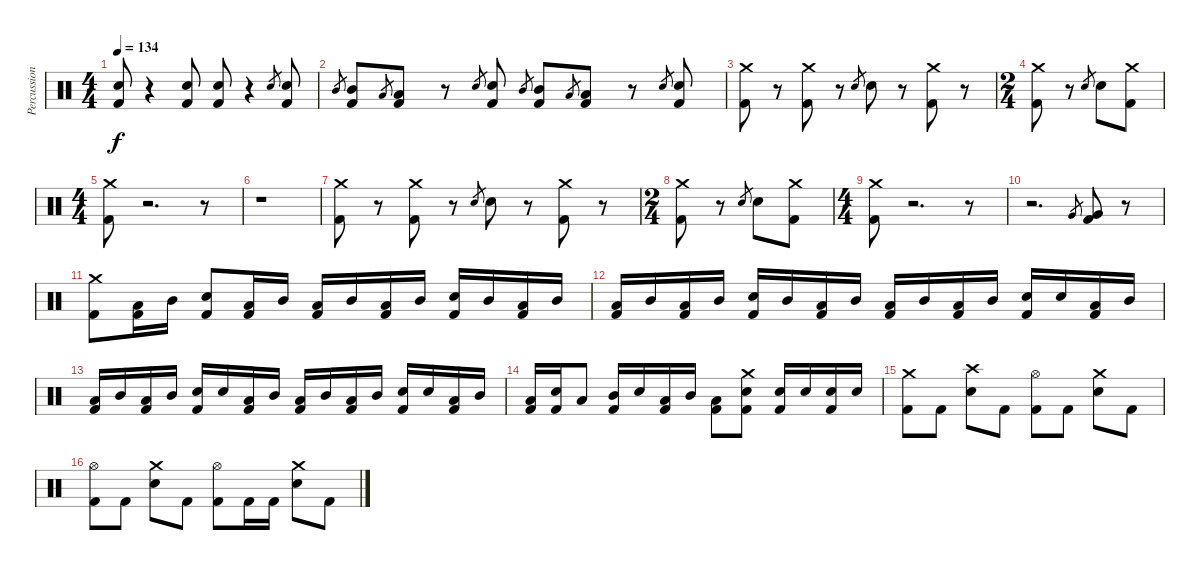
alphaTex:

\track ("Percussion" "Percussion") {instrument percussion}
\staff {score}
\articulation defaults
\ts (4 4)
\tempo 134
\clef neutral
\ks c
("Kick (hit) 2" "Electric Snare (hit)").8{dy f} r.4 ("Kick (hit) 2" "Electric Snare (hit)").8 ("Kick (hit) 2" "Electric Snare (hit)").8 r.4 "Electric Snare (hit)".8{gr} ("Kick (hit) 2" "Electric Snare (hit)").8 |
"Mid Tom (hit)".8{gr} ("Kick (hit) 2" "Mid Tom (hit)").8 "Low Tom (hit)".8{gr} ("Kick (hit) 2" "Low Tom (hit)").8 r.8 "Electric Snare (hit)".8{gr} ("Kick (hit) 2" "Electric Snare (hit)").8 "Mid Tom (hit)".8{gr} ("Kick (hit) 2" "Mid Tom (hit)").8 "Low Tom (hit)".8{gr} ("Kick (hit) 2" "Low Tom (hit)").8 r.8 "Electric Snare (hit)".8{gr} ("Kick (hit) 2" "Electric Snare (hit)").8 |
("Kick (hit) 2" "Crash medium (hit)").8 r.8 ("Kick (hit) 2" "Crash medium (hit)").8 r.8 "Electric Snare (hit)".8{gr} "Electric Snare (hit)".8 r.8 ("Kick (hit) 2" "Crash medium (hit)").8 r.8 |
\ts (2 4)
("Kick (hit) 2" "Crash medium (hit)").8 r.8 "Electric Snare (hit)".8{gr} "Electric Snare (hit)".8 ("Kick (hit) 2" "Crash medium (hit)").8 |
\ts (4 4)
("Kick (hit) 2" "Crash medium (hit)").8 r.2{d} r.8 |
r.1 |
("Kick (hit) 2" "Crash medium (hit)").8 r.8 ("Kick (hit) 2" "Crash medium (hit)").8 r.8 "Electric Snare (hit)".8{gr} "Electric Snare (hit)".8 r.8 ("Kick (hit) 2" "Crash medium (hit)").8 r.8 |
\ts (2 4)
("Kick (hit) 2" "Crash medium (hit)").8 r.8 "Electric Snare (hit)".8{gr} "Electric Snare (hit)".8 ("Kick (hit) 2" "Crash medium (hit)").8 |
\ts (4 4)
("Kick (hit) 2" "Crash medium (hit)").8 r.2{d} r.8 |
r.2{d} "Very Low Tom (hit)".8{gr} ("Kick (hit) 2" "Very Low Tom (hit)").8 r.8 |
("Kick (hit) 2" "Crash medium (hit)").8 ("Kick (hit) 2" "Low Tom (hit)").16 "Mid Tom (hit)".16 ("Kick (hit) 2" "Electric Snare (hit)").8 ("Kick (hit) 2" "Low Tom (hit)").16 "Mid Tom (hit)".16 ("Kick (hit) 2" "Low Tom (hit)").16 "Mid Tom (hit)".16 ("Kick (hit) 2" "Low Tom (hit)").16 "Mid Tom (hit)".16 ("Kick (hit) 2" "Electric Snare (hit)").16 "Mid Tom (hit)".16 ("Kick (hit) 2" "Low Tom (hit)").16 "Mid Tom (hit)".16 |
("Kick (hit) 2" "Low Tom (hit)").16 "Mid Tom (hit)".16 ("Kick (hit) 2" "Low Tom (hit)").16 "Mid Tom (hit)".16 ("Kick (hit) 2" "Electric Snare (hit)").16 "Mid Tom (hit)".16 ("Kick (hit) 2" "Low Tom (hit)").16 "Mid Tom (hit)".16 ("Kick (hit) 2" "Low Tom (hit)").16 "Mid Tom (hit)".16 ("Kick (hit) 2" "Low Tom (hit)").16 "Mid Tom (hit)".16 ("Kick (hit) 2" "Electric Snare (hit)").16 "Electric Snare (hit)".16 ("Kick (hit) 2" "Low Tom (hit)").16 "Mid Tom (hit)".16 |
("Kick (hit) 2" "Low Tom (hit)").16 "Mid Tom (hit)".16 ("Kick (hit) 2" "Low Tom (hit)").16 "Mid Tom (hit)".16 ("Kick (hit) 2" "Electric Snare (hit)").16 "Electric Snare (hit)".16 ("Kick (hit) 2" "Low Tom (hit)").16 "Mid Tom (hit)".16 ("Kick (hit) 2" "Low Tom (hit)").16 "Mid Tom (hit)".16 ("Kick (hit) 2" "Low Tom (hit)").16 "Mid Tom (hit)".16 ("Kick (hit) 2" "Electric Snare (hit)").16 "Electric Snare (hit)".16 ("Kick (hit) 2" "Low Tom (hit)").16 "Mid Tom (hit)".16 |
("Kick (hit) 2" "Low Tom (hit)").16 ("Kick (hit) 2" "Electric Snare (hit)").16 "Low Tom (hit)".8 ("Kick (hit) 2" "Mid Tom (hit)").16 "Electric Snare (hit)".16 ("Kick (hit) 2" "Low Tom (hit)").16 "Mid Tom (hit)".16 ("Kick (hit) 2" "Low Tom (hit)").8 ("Kick (hit) 2" "Electric Snare (hit)" "Crash medium (hit)").8 ("Kick (hit) 2" "Electric Snare (hit)").16 "Electric Snare (hit)".16 ("Kick (hit) 2" "Electric Snare (hit)").16 "Electric Snare (hit)".16 |
("Kick (hit) 2" "Crash medium (hit)").8 "Kick (hit) 2".8 ("Electric Snare (hit)" "Crash high (hit)").8 "Kick (hit) 2".8 ("Kick (hit) 2" "Hi-Hat (open)").8 "Kick (hit) 2".8 ("Electric Snare (hit)" "Crash medium (hit)").8 "Kick (hit) 2".8 |
("Kick (hit) 2" "Hi-Hat (open)").8 "Kick (hit) 2".8 ("Electric Snare (hit)" "Crash medium (hit)").8 "Kick (hit) 2".8 ("Kick (hit) 2" "Hi-Hat (open)").8 "Kick (hit) 2".16 "Kick (hit) 2".16 ("Electric Snare (hit)" "Crash medium (hit)").8 "Kick (hit) 2".8
